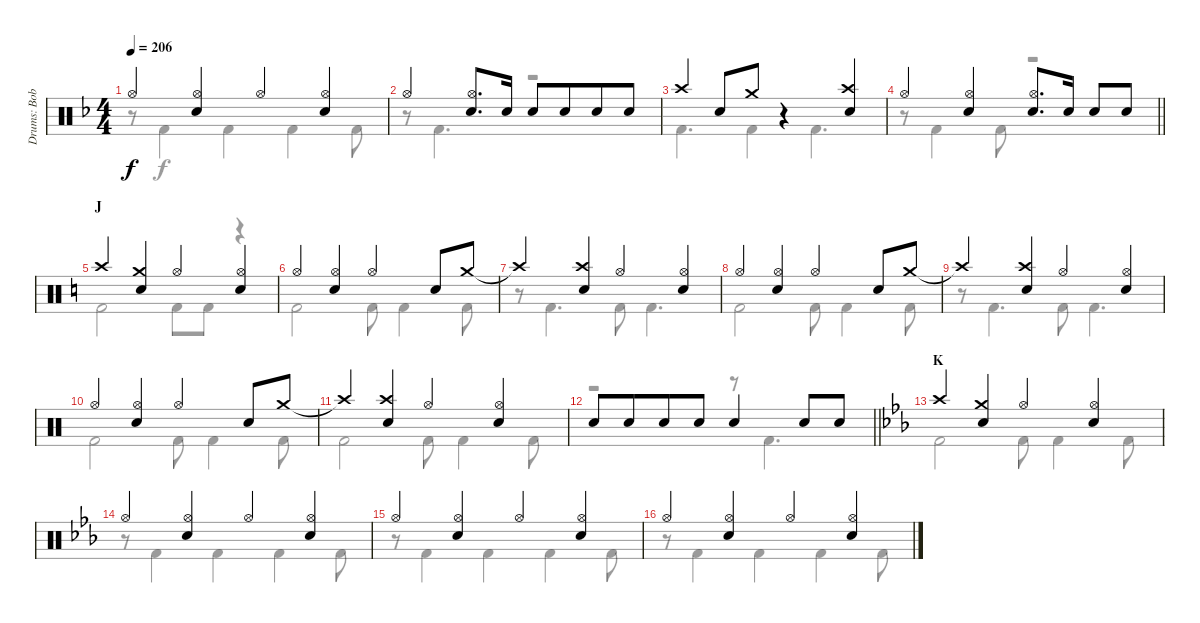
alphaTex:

\track ("Drums: Bobby" "Drums: Bob") {instrument percussion}
\staff {score}
\articulation defaults
\voice
\ts (4 4)
\tempo 206
\clef neutral
\ks f "Hi-Hat (open)".4{dy f}
("Hi-Hat (open)" "Snare (hit) 2").4 "Hi-Hat (open)".4 ("Hi-Hat (open)" "Snare (hit) 2").4 |
"Hi-Hat (open)".4 ("Hi-Hat (open)" "Snare (hit) 2").8{d} "Electric Snare (hit)".16 "Snare (hit) 2".8 "Snare (hit) 2".8{beam merge} "Snare (hit) 2".8 "Snare (hit) 2".8 |
"Crash high (hit)".4 "Snare (hit) 2".8 "Crash medium (hit)".8 r.4 ("Crash high (hit)" "Snare (hit) 2").4 |
\barLineRight lightlight "Hi-Hat (open)".4
("Hi-Hat (open)" "Snare (hit) 2").4 ("Hi-Hat (open)" "Electric Snare (hit)").8{d} "Electric Snare (hit)".16 "Snare (hit) 2".8 "Snare (hit) 2".8 |
\section ("" "J")
\ks c "Crash high (hit)".4
("Crash medium (hit)" "Snare (hit) 2").4 "Hi-Hat (open)".4 ("Hi-Hat (open)" "Snare (hit) 2").4 |
"Hi-Hat (open)".4 ("Hi-Hat (open)" "Snare (hit) 2").4 "Hi-Hat (open)".4 "Snare (hit) 2".8 "Crash medium (hit)".8 |
"Crash high (hit)"{t}.4 ("Crash high (hit)" "Snare (hit) 2").4 "Hi-Hat (open)".4 ("Hi-Hat (open)" "Snare (hit) 2").4 |
"Hi-Hat (open)".4 ("Hi-Hat (open)" "Snare (hit) 2").4 "Hi-Hat (open)".4 "Snare (hit) 2".8 "Crash medium (hit)".8 |
"Crash high (hit)"{t}.4 ("Crash high (hit)" "Snare (hit) 2").4 "Hi-Hat (open)".4 ("Hi-Hat (open)" "Snare (hit) 2").4 |
"Hi-Hat (open)".4 ("Hi-Hat (open)" "Snare (hit) 2").4 "Hi-Hat (open)".4 "Snare (hit) 2".8 "Crash medium (hit)".8 |
"Crash high (hit)"{t}.4 ("Crash high (hit)" "Snare (hit) 2").4 "Hi-Hat (open)".4 ("Hi-Hat (open)" "Snare (hit) 2").4 |
\barLineRight lightlight "Electric Snare (hit)".8 "Electric Snare (hit)".8{beam merge} "Electric Snare (hit)".8 "Electric Snare (hit)".8 "Snare (hit) 2".4 "Electric Snare (hit)".8 "Electric Snare (hit)".8
|
\section ("" "K")
\ks eb "Crash high (hit)".4
("Crash medium (hit)" "Snare (hit) 2").4 "Hi-Hat (open)".4 ("Hi-Hat (open)" "Snare (hit) 2").4 |
"Hi-Hat (open)".4 ("Hi-Hat (open)" "Snare (hit) 2").4 "Hi-Hat (open)".4 ("Hi-Hat (open)" "Snare (hit) 2").4 |
"Hi-Hat (open)".4 ("Hi-Hat (open)" "Snare (hit) 2").4 "Hi-Hat (open)".4 ("Hi-Hat (open)" "Snare (hit) 2").4 |
"Hi-Hat (open)".4 ("Hi-Hat (open)" "Snare (hit) 2").4 "Hi-Hat (open)".4 ("Hi-Hat (open)" "Snare (hit) 2").4
\voice
\clef neutral
\ottava regular
\simile none
\ks f
r.8{dy f} "Kick (hit) 2".4 "Kick (hit) 2".4 "Kick (hit) 2".4 "Kick (hit) 2".8 |
r.8 "Kick (hit) 2".4{d} r.2 |
"Kick (hit) 2".4{d} "Kick (hit) 2".4 "Kick (hit) 2".4{d} |
\barLineRight lightlight
r.8 "Kick (hit) 2".4 "Kick (hit) 2".8 r.2 |
\ks c "Kick (hit) 2".2 "Kick (hit) 2".8 "Kick (hit) 2".8
r.4 |
"Kick (hit) 2".2 "Kick (hit) 2".8 "Kick (hit) 2".4 "Kick (hit) 2".8 |
r.8 "Kick (hit) 2".4{d} "Kick (hit) 2".8 "Kick (hit) 2".4{d} |
"Kick (hit) 2".2 "Kick (hit) 2".8 "Kick (hit) 2".4 "Kick (hit) 2".8 |
r.8 "Kick (hit) 2".4{d} "Kick (hit) 2".8 "Kick (hit) 2".4{d} |
"Kick (hit) 2".2 "Kick (hit) 2".8 "Kick (hit) 2".4 "Kick (hit) 2".8 |
"Kick (hit) 2".2 "Kick (hit) 2".8 "Kick (hit) 2".4 "Kick (hit) 2".8 |
\barLineRight lightlight
r.2 r.8 "Kick (hit) 2".4{d} |
\ks eb "Kick (hit) 2".2 "Kick (hit) 2".8 "Kick (hit) 2".4 "Kick (hit) 2".8
|
r.8 "Kick (hit) 2".4 "Kick (hit) 2".4 "Kick (hit) 2".4 "Kick (hit) 2".8 |
r.8 "Kick (hit) 2".4 "Kick (hit) 2".4 "Kick (hit) 2".4 "Kick (hit) 2".8 |
r.8 "Kick (hit) 2".4 "Kick (hit) 2".4 "Kick (hit) 2".4 "Kick (hit) 2".8
